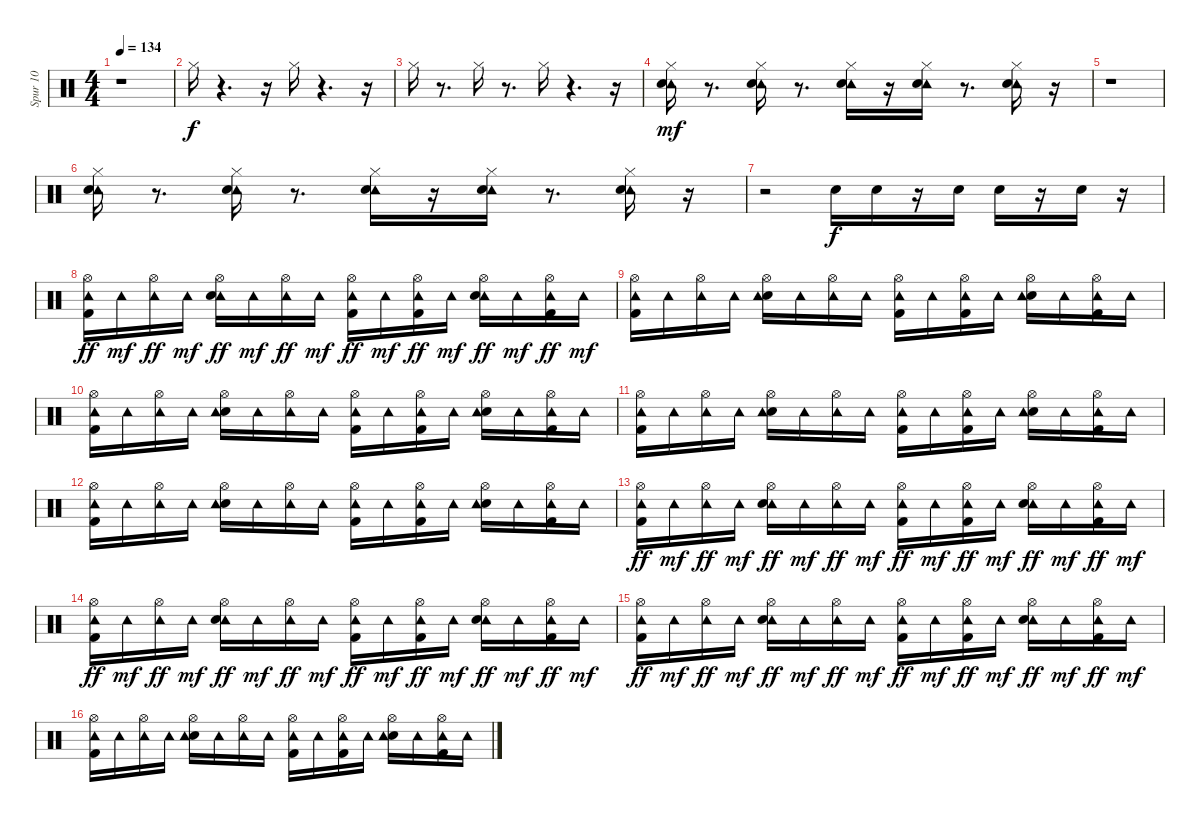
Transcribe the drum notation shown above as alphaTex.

\track ("Spur 10" "Spur 10") {instrument percussion}
\staff {score}
\articulation defaults
\ts (4 4)
\tempo 134
\clef neutral
\ks c
r.1{dy f} |
"Hi-Hat (closed)".16 r.4{d} r.16 "Hi-Hat (closed)".16 r.4{d} r.16 |
"Hi-Hat (closed)".16 r.8{d} "Hi-Hat (closed)".16 r.8{d} "Hi-Hat (closed)".16 r.4{d} r.16 |
("Hi-Hat (closed)" "Tambourine (hit)" "Snare (hit) 2").16{dy mf} r.8{d} ("Hi-Hat (closed)" "Tambourine (hit)" "Snare (hit) 2").16 r.8{d} ("Hi-Hat (closed)" "Tambourine (hit)" "Snare (hit) 2").16 r.16 ("Hi-Hat (closed)" "Tambourine (hit)" "Snare (hit) 2").16 r.8{d} ("Hi-Hat (closed)" "Tambourine (hit)" "Snare (hit) 2").16 r.16 |
r.1 |
("Hi-Hat (closed)" "Tambourine (hit)" "Snare (hit) 2").16 r.8{d} ("Hi-Hat (closed)" "Tambourine (hit)" "Snare (hit) 2").16 r.8{d} ("Hi-Hat (closed)" "Tambourine (hit)" "Snare (hit) 2").16 r.16 ("Hi-Hat (closed)" "Tambourine (hit)" "Snare (hit) 2").16 r.8{d} ("Hi-Hat (closed)" "Tambourine (hit)" "Snare (hit) 2").16 r.16 |
r.2 "Snare (hit) 2".16{dy f} "Snare (hit) 2".16 r.16 "Snare (hit) 2".16 "Snare (hit) 2".16 r.16 "Snare (hit) 2".16 r.16 |
("Tambourine (hit)" "Kick (hit) 2" "Hi-Hat (open)").16{dy ff} "Tambourine (hit)".16{dy mf} ("Tambourine (hit)" "Hi-Hat (open)").16{dy ff} "Tambourine (hit)".16{dy mf} ("Tambourine (hit)" "Snare (hit) 2" "Hi-Hat (open)").16{dy ff} "Tambourine (hit)".16{dy mf} ("Tambourine (hit)" "Hi-Hat (open)").16{dy ff} "Tambourine (hit)".16{dy mf} ("Tambourine (hit)" "Kick (hit) 2" "Hi-Hat (open)").16{dy ff} "Tambourine (hit)".16{dy mf} ("Tambourine (hit)" "Kick (hit) 2" "Hi-Hat (open)").16{dy ff} "Tambourine (hit)".16{dy mf} ("Tambourine (hit)" "Snare (hit) 2" "Hi-Hat (open)").16{dy ff} "Tambourine (hit)".16{dy mf} ("Tambourine (hit)" "Kick (hit) 2" "Hi-Hat (open)").16{dy ff} "Tambourine (hit)".16{dy mf} |
("Hi-Hat (open)" "Kick (hit) 2" "Tambourine (hit)").16 "Tambourine (hit)".16 ("Hi-Hat (open)" "Tambourine (hit)").16 "Tambourine (hit)".16 ("Hi-Hat (open)" "Snare (hit) 2" "Tambourine (hit)").16 "Tambourine (hit)".16 ("Hi-Hat (open)" "Tambourine (hit)").16 "Tambourine (hit)".16 ("Hi-Hat (open)" "Kick (hit) 2" "Tambourine (hit)").16 "Tambourine (hit)".16 ("Hi-Hat (open)" "Kick (hit) 2" "Tambourine (hit)").16 "Tambourine (hit)".16 ("Hi-Hat (open)" "Snare (hit) 2" "Tambourine (hit)").16 "Tambourine (hit)".16 ("Hi-Hat (open)" "Kick (hit) 2" "Tambourine (hit)").16 "Tambourine (hit)".16 |
("Hi-Hat (open)" "Kick (hit) 2" "Tambourine (hit)").16 "Tambourine (hit)".16 ("Hi-Hat (open)" "Tambourine (hit)").16 "Tambourine (hit)".16 ("Hi-Hat (open)" "Snare (hit) 2" "Tambourine (hit)").16 "Tambourine (hit)".16 ("Hi-Hat (open)" "Tambourine (hit)").16 "Tambourine (hit)".16 ("Hi-Hat (open)" "Kick (hit) 2" "Tambourine (hit)").16 "Tambourine (hit)".16 ("Hi-Hat (open)" "Kick (hit) 2" "Tambourine (hit)").16 "Tambourine (hit)".16 ("Hi-Hat (open)" "Snare (hit) 2" "Tambourine (hit)").16 "Tambourine (hit)".16 ("Hi-Hat (open)" "Kick (hit) 2" "Tambourine (hit)").16 "Tambourine (hit)".16 |
("Hi-Hat (open)" "Kick (hit) 2" "Tambourine (hit)").16 "Tambourine (hit)".16 ("Hi-Hat (open)" "Tambourine (hit)").16 "Tambourine (hit)".16 ("Hi-Hat (open)" "Snare (hit) 2" "Tambourine (hit)").16 "Tambourine (hit)".16 ("Hi-Hat (open)" "Tambourine (hit)").16 "Tambourine (hit)".16 ("Hi-Hat (open)" "Kick (hit) 2" "Tambourine (hit)").16 "Tambourine (hit)".16 ("Hi-Hat (open)" "Kick (hit) 2" "Tambourine (hit)").16 "Tambourine (hit)".16 ("Hi-Hat (open)" "Snare (hit) 2" "Tambourine (hit)").16 "Tambourine (hit)".16 ("Hi-Hat (open)" "Kick (hit) 2" "Tambourine (hit)").16 "Tambourine (hit)".16 |
("Hi-Hat (open)" "Kick (hit) 2" "Tambourine (hit)").16 "Tambourine (hit)".16 ("Hi-Hat (open)" "Tambourine (hit)").16 "Tambourine (hit)".16 ("Hi-Hat (open)" "Snare (hit) 2" "Tambourine (hit)").16 "Tambourine (hit)".16 ("Hi-Hat (open)" "Tambourine (hit)").16 "Tambourine (hit)".16 ("Hi-Hat (open)" "Kick (hit) 2" "Tambourine (hit)").16 "Tambourine (hit)".16 ("Hi-Hat (open)" "Kick (hit) 2" "Tambourine (hit)").16 "Tambourine (hit)".16 ("Hi-Hat (open)" "Snare (hit) 2" "Tambourine (hit)").16 "Tambourine (hit)".16 ("Hi-Hat (open)" "Kick (hit) 2" "Tambourine (hit)").16 "Tambourine (hit)".16 |
("Tambourine (hit)" "Kick (hit) 2" "Hi-Hat (open)").16{dy ff} "Tambourine (hit)".16{dy mf} ("Tambourine (hit)" "Hi-Hat (open)").16{dy ff} "Tambourine (hit)".16{dy mf} ("Tambourine (hit)" "Snare (hit) 2" "Hi-Hat (open)").16{dy ff} "Tambourine (hit)".16{dy mf} ("Tambourine (hit)" "Hi-Hat (open)").16{dy ff} "Tambourine (hit)".16{dy mf} ("Tambourine (hit)" "Kick (hit) 2" "Hi-Hat (open)").16{dy ff} "Tambourine (hit)".16{dy mf} ("Tambourine (hit)" "Kick (hit) 2" "Hi-Hat (open)").16{dy ff} "Tambourine (hit)".16{dy mf} ("Tambourine (hit)" "Snare (hit) 2" "Hi-Hat (open)").16{dy ff} "Tambourine (hit)".16{dy mf} ("Tambourine (hit)" "Kick (hit) 2" "Hi-Hat (open)").16{dy ff} "Tambourine (hit)".16{dy mf} |
("Tambourine (hit)" "Kick (hit) 2" "Hi-Hat (open)").16{dy ff} "Tambourine (hit)".16{dy mf} ("Tambourine (hit)" "Hi-Hat (open)").16{dy ff} "Tambourine (hit)".16{dy mf} ("Tambourine (hit)" "Snare (hit) 2" "Hi-Hat (open)").16{dy ff} "Tambourine (hit)".16{dy mf} ("Tambourine (hit)" "Hi-Hat (open)").16{dy ff} "Tambourine (hit)".16{dy mf} ("Tambourine (hit)" "Kick (hit) 2" "Hi-Hat (open)").16{dy ff} "Tambourine (hit)".16{dy mf} ("Tambourine (hit)" "Kick (hit) 2" "Hi-Hat (open)").16{dy ff} "Tambourine (hit)".16{dy mf} ("Tambourine (hit)" "Snare (hit) 2" "Hi-Hat (open)").16{dy ff} "Tambourine (hit)".16{dy mf} ("Tambourine (hit)" "Kick (hit) 2" "Hi-Hat (open)").16{dy ff} "Tambourine (hit)".16{dy mf} |
("Tambourine (hit)" "Kick (hit) 2" "Hi-Hat (open)").16{dy ff} "Tambourine (hit)".16{dy mf} ("Tambourine (hit)" "Hi-Hat (open)").16{dy ff} "Tambourine (hit)".16{dy mf} ("Tambourine (hit)" "Snare (hit) 2" "Hi-Hat (open)").16{dy ff} "Tambourine (hit)".16{dy mf} ("Tambourine (hit)" "Hi-Hat (open)").16{dy ff} "Tambourine (hit)".16{dy mf} ("Tambourine (hit)" "Kick (hit) 2" "Hi-Hat (open)").16{dy ff} "Tambourine (hit)".16{dy mf} ("Tambourine (hit)" "Kick (hit) 2" "Hi-Hat (open)").16{dy ff} "Tambourine (hit)".16{dy mf} ("Tambourine (hit)" "Snare (hit) 2" "Hi-Hat (open)").16{dy ff} "Tambourine (hit)".16{dy mf} ("Tambourine (hit)" "Kick (hit) 2" "Hi-Hat (open)").16{dy ff} "Tambourine (hit)".16{dy mf} |
("Hi-Hat (open)" "Kick (hit) 2" "Tambourine (hit)").16 "Tambourine (hit)".16 ("Hi-Hat (open)" "Tambourine (hit)").16 "Tambourine (hit)".16 ("Hi-Hat (open)" "Snare (hit) 2" "Tambourine (hit)").16 "Tambourine (hit)".16 ("Hi-Hat (open)" "Tambourine (hit)").16 "Tambourine (hit)".16 ("Hi-Hat (open)" "Kick (hit) 2" "Tambourine (hit)").16 "Tambourine (hit)".16 ("Hi-Hat (open)" "Kick (hit) 2" "Tambourine (hit)").16 "Tambourine (hit)".16 ("Hi-Hat (open)" "Snare (hit) 2" "Tambourine (hit)").16 "Tambourine (hit)".16 ("Hi-Hat (open)" "Kick (hit) 2" "Tambourine (hit)").16 "Tambourine (hit)".16
